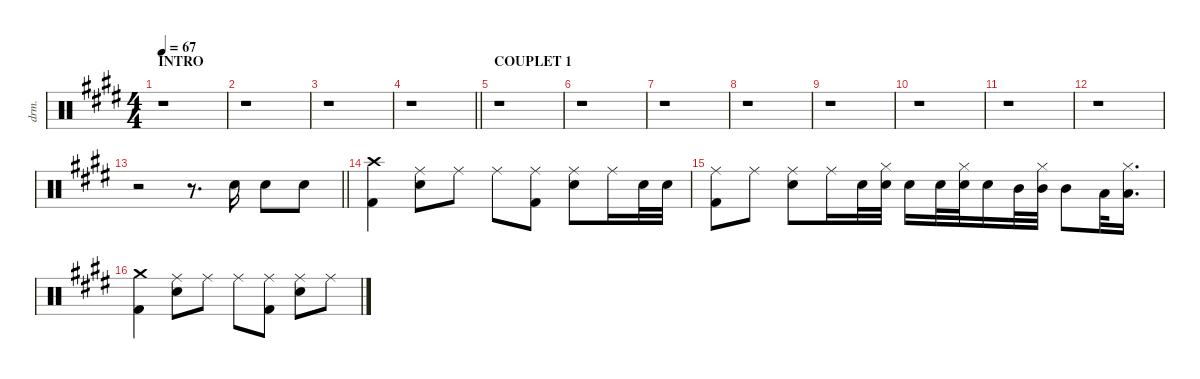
\defaultSystemsLayout 4
\hideDynamics
\bracketExtendMode groupsimilarinstruments
\otherSystemsTrackNameOrientation horizontal
\track ("Drums" "drm.") {defaultSystemsLayout 4 instrument percussion}
\staff {score}
\articulation defaults
\ts (4 4)
\beaming (8 2 2 2 2)
\section ("" "INTRO")
\tempo 67
\clef neutral
\ks c#minor
r.1{dy f beam Down} |
r.1{beam Down} |
r.1{beam Down} |
\barLineRight lightlight
r.1{beam Down} |
\section ("" "COUPLET 1")
r.1{beam Down} |
r.1{beam Down} |
r.1{beam Down} |
r.1{beam Down} |
r.1{beam Down} |
r.1{beam Down} |
r.1{beam Down} |
r.1{beam Down} |
\barLineRight lightlight
r.2{beam Down} r.8{d beam Down} "Snare (hit) 2"{acc forcenatural}.16{beam Down} "Snare (hit) 2"{acc forcenatural}.8{beam Down} "Snare (hit) 2"{acc forcenatural}.8{beam Down} |
("Kick (hit) 2"{acc forcenatural} "Crash high (hit)"{acc forcenatural}).4{beam Down} ("Snare (hit) 2"{acc forcenatural} "Ride (middle)"{acc forcenatural}).8{beam Down} "Ride (middle)"{acc forcenatural}.8{beam Down} "Ride (middle)"{acc forcenatural}.8{beam Down} ("Kick (hit) 2"{acc forcenatural} "Ride (middle)"{acc forcenatural}).8{beam Down} ("Snare (hit) 2"{acc forcenatural} "Ride (middle)"{acc forcenatural}).8{beam Down} "Ride (middle)"{acc forcenatural}.16{beam Down} "Snare (hit) 2"{acc forcenatural}.32{beam Down} "Snare (hit) 2"{acc forcenatural}.32{beam Down} |
("Kick (hit) 2"{acc forcenatural} "Ride (middle)"{acc forcenatural}).8{beam Down} "Ride (middle)"{acc forcenatural}.8{beam Down} ("Snare (hit) 2"{acc forcenatural} "Ride (middle)"{acc forcenatural}).8{beam Down} "Ride (middle)"{acc forcenatural}.16{beam Down} "Snare (hit) 2"{acc forcenatural}.32{dy fff beam Down} ("Hi-Hat (closed)"{acc forcenatural} "Snare (hit) 2"{acc forcenatural}).32{dy f beam Down} "Snare (hit) 2"{acc forcenatural}.16{beam Down} "Snare (hit) 2"{acc forcenatural}.32{dy fff beam Down} ("Hi-Hat (closed)"{acc forcenatural} "Snare (hit) 2"{acc forcenatural}).32{dy f beam Down} "Snare (hit) 2"{acc forcenatural}.16{beam Down} "Mid Tom (hit)"{acc forcenatural}.32{beam Down} ("Hi-Hat (closed)"{acc forcenatural} "Mid Tom (hit)"{acc forcenatural}).32{beam Down} "Mid Tom (hit)"{acc forcenatural}.8{beam Down} "Low Tom (hit)"{acc forcenatural}.32{beam Down} ("Hi-Hat (closed)"{acc forcenatural} "Low Tom (hit)"{acc forcenatural}).16{d beam Down} |
("Crash medium (hit)"{acc forcenatural} "Kick (hit) 2"{acc forcenatural}).4{beam Down} ("Ride (middle)"{acc forcenatural} "Snare (hit) 2"{acc forcenatural}).8{beam Down} "Ride (middle)"{acc forcenatural}.8{beam Down} "Ride (middle)"{acc forcenatural}.8{beam Down} ("Ride (middle)"{acc forcenatural} "Kick (hit) 2"{acc forcenatural}).8{beam Down} ("Ride (middle)"{acc forcenatural} "Snare (hit) 2"{acc forcenatural}).8{beam Down} "Ride (middle)"{acc forcenatural}.8{beam Down}
